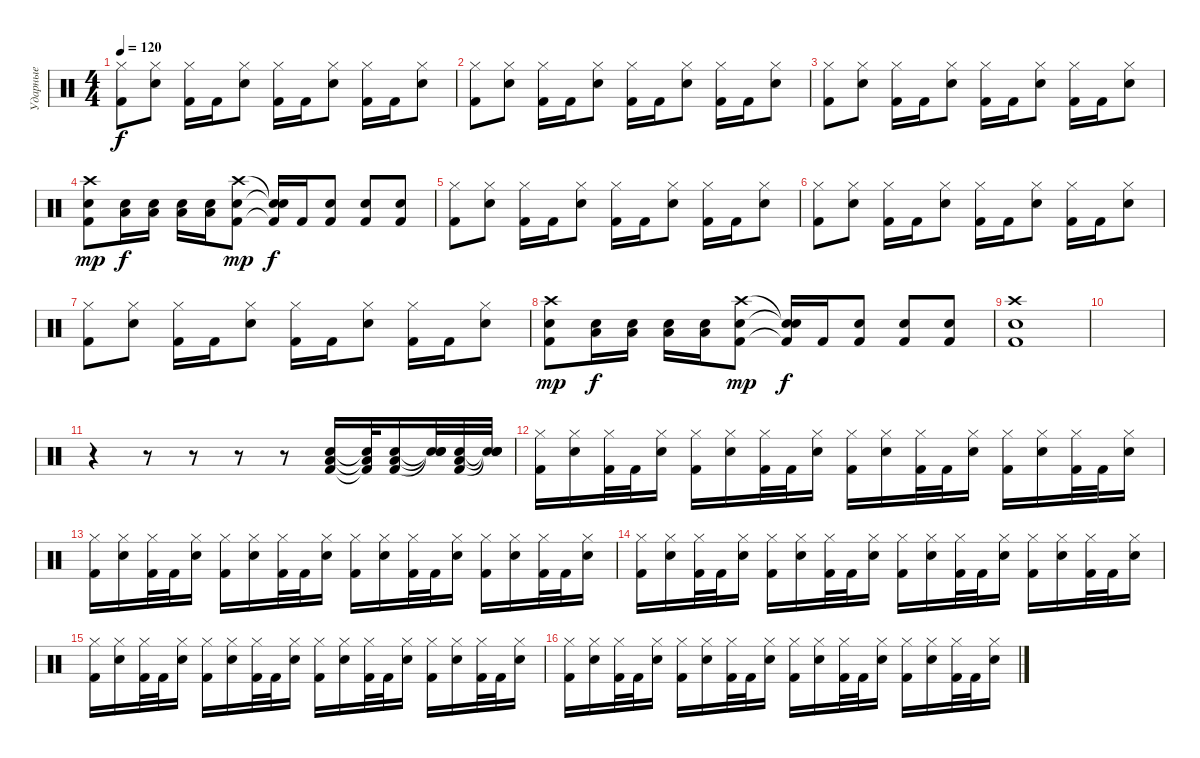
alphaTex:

\track ("Ударные" "Ударные") {instrument percussion}
\staff {score}
\articulation defaults
\ts (4 4)
\tempo 120
\clef neutral
\ks c
("Hi-Hat (closed)" "Kick (hit) 2").8{dy f} ("Hi-Hat (closed)" "Electric Snare (hit)").8 ("Hi-Hat (closed)" "Kick (hit) 2").16 "Kick (hit) 2".16 ("Hi-Hat (closed)" "Electric Snare (hit)").8 ("Hi-Hat (closed)" "Kick (hit) 2").16 "Kick (hit) 2".16 ("Hi-Hat (closed)" "Electric Snare (hit)").8 ("Hi-Hat (closed)" "Kick (hit) 2").16 "Kick (hit) 2".16 ("Hi-Hat (closed)" "Electric Snare (hit)").8 |
("Hi-Hat (closed)" "Kick (hit) 2").8 ("Hi-Hat (closed)" "Electric Snare (hit)").8 ("Hi-Hat (closed)" "Kick (hit) 2").16 "Kick (hit) 2".16 ("Hi-Hat (closed)" "Electric Snare (hit)").8 ("Hi-Hat (closed)" "Kick (hit) 2").16 "Kick (hit) 2".16 ("Hi-Hat (closed)" "Electric Snare (hit)").8 ("Hi-Hat (closed)" "Kick (hit) 2").16 "Kick (hit) 2".16 ("Hi-Hat (closed)" "Electric Snare (hit)").8 |
("Hi-Hat (closed)" "Kick (hit) 2").8 ("Hi-Hat (closed)" "Electric Snare (hit)").8 ("Hi-Hat (closed)" "Kick (hit) 2").16 "Kick (hit) 2".16 ("Hi-Hat (closed)" "Electric Snare (hit)").8 ("Hi-Hat (closed)" "Kick (hit) 2").16 "Kick (hit) 2".16 ("Hi-Hat (closed)" "Electric Snare (hit)").8 ("Hi-Hat (closed)" "Kick (hit) 2").16 "Kick (hit) 2".16 ("Hi-Hat (closed)" "Electric Snare (hit)").8 |
("Crash high (hit)" "Electric Snare (hit)" "Kick (hit) 2").8{dy mp} ("Low Floor Tom (hit)" "Electric Snare (hit)").16{dy f} ("Low Floor Tom (hit)" "Electric Snare (hit)").16 ("Low Floor Tom (hit)" "Electric Snare (hit)").16 ("Low Floor Tom (hit)" "Electric Snare (hit)").16 ("Crash high (hit)" "Electric Snare (hit)" "Kick (hit) 2").8{dy mp} ("Snare (hit)"{t} "Snare (hit)"{t} "Kick (hit) 2"{t}).16{dy f} "Kick (hit) 2".16 ("Electric Snare (hit)" "Kick (hit) 2").8 ("Electric Snare (hit)" "Kick (hit) 2").8 ("Electric Snare (hit)" "Kick (hit) 2").8 |
("Hi-Hat (closed)" "Kick (hit) 2").8 ("Hi-Hat (closed)" "Electric Snare (hit)").8 ("Hi-Hat (closed)" "Kick (hit) 2").16 "Kick (hit) 2".16 ("Hi-Hat (closed)" "Electric Snare (hit)").8 ("Hi-Hat (closed)" "Kick (hit) 2").16 "Kick (hit) 2".16 ("Hi-Hat (closed)" "Electric Snare (hit)").8 ("Hi-Hat (closed)" "Kick (hit) 2").16 "Kick (hit) 2".16 ("Hi-Hat (closed)" "Electric Snare (hit)").8 |
("Hi-Hat (closed)" "Kick (hit) 2").8 ("Hi-Hat (closed)" "Electric Snare (hit)").8 ("Hi-Hat (closed)" "Kick (hit) 2").16 "Kick (hit) 2".16 ("Hi-Hat (closed)" "Electric Snare (hit)").8 ("Hi-Hat (closed)" "Kick (hit) 2").16 "Kick (hit) 2".16 ("Hi-Hat (closed)" "Electric Snare (hit)").8 ("Hi-Hat (closed)" "Kick (hit) 2").16 "Kick (hit) 2".16 ("Hi-Hat (closed)" "Electric Snare (hit)").8 |
("Hi-Hat (closed)" "Kick (hit) 2").8 ("Hi-Hat (closed)" "Electric Snare (hit)").8 ("Hi-Hat (closed)" "Kick (hit) 2").16 "Kick (hit) 2".16 ("Hi-Hat (closed)" "Electric Snare (hit)").8 ("Hi-Hat (closed)" "Kick (hit) 2").16 "Kick (hit) 2".16 ("Hi-Hat (closed)" "Electric Snare (hit)").8 ("Hi-Hat (closed)" "Kick (hit) 2").16 "Kick (hit) 2".16 ("Hi-Hat (closed)" "Electric Snare (hit)").8 |
("Crash high (hit)" "Electric Snare (hit)" "Kick (hit) 2").8{dy mp} ("Low Floor Tom (hit)" "Electric Snare (hit)").16{dy f} ("Low Floor Tom (hit)" "Electric Snare (hit)").16 ("Low Floor Tom (hit)" "Electric Snare (hit)").16 ("Low Floor Tom (hit)" "Electric Snare (hit)").16 ("Crash high (hit)" "Electric Snare (hit)" "Kick (hit) 2").8{dy mp} ("Snare (hit)"{t} "Snare (hit)"{t} "Kick (hit) 2"{t}).16{dy f} "Kick (hit) 2".16 ("Electric Snare (hit)" "Kick (hit) 2").8 ("Electric Snare (hit)" "Kick (hit) 2").8 ("Electric Snare (hit)" "Kick (hit) 2").8 |
("Crash high (hit)" "Electric Snare (hit)" "Kick (hit) 2").1 |
|
r.4 r.8 r.8 r.8 r.8 ("Low Floor Tom (hit)" "Electric Snare (hit)" "Kick (hit) 2").16 ("Low Floor Tom (hit)"{t} "Electric Snare (hit)"{t} "Kick (hit) 2"{t}).32 ("Low Floor Tom (hit)" "Electric Snare (hit)" "Kick (hit) 2").16 ("Snare (hit)"{t} "Snare (hit)"{t} "Snare (hit)"{t}).32 ("Low Floor Tom (hit)" "Electric Snare (hit)" "Kick (hit) 2").32 ("Snare (hit)"{t} "Snare (hit)"{t} "Snare (hit)"{t} "Snare (hit)").32 |
("Hi-Hat (closed)" "Kick (hit) 2").16 ("Hi-Hat (closed)" "Electric Snare (hit)").16 ("Hi-Hat (closed)" "Kick (hit) 2").32 "Kick (hit) 2".32 ("Hi-Hat (closed)" "Electric Snare (hit)").16 ("Hi-Hat (closed)" "Kick (hit) 2").16 ("Hi-Hat (closed)" "Electric Snare (hit)").16 ("Hi-Hat (closed)" "Kick (hit) 2").32 "Kick (hit) 2".32 ("Hi-Hat (closed)" "Electric Snare (hit)").16 ("Hi-Hat (closed)" "Kick (hit) 2").16 ("Hi-Hat (closed)" "Electric Snare (hit)").16 ("Hi-Hat (closed)" "Kick (hit) 2").32 "Kick (hit) 2".32 ("Hi-Hat (closed)" "Electric Snare (hit)").16 ("Hi-Hat (closed)" "Kick (hit) 2").16 ("Hi-Hat (closed)" "Electric Snare (hit)").16 ("Hi-Hat (closed)" "Kick (hit) 2").32 "Kick (hit) 2".32 ("Hi-Hat (closed)" "Electric Snare (hit)").16 |
("Hi-Hat (closed)" "Kick (hit) 2").16 ("Hi-Hat (closed)" "Electric Snare (hit)").16 ("Hi-Hat (closed)" "Kick (hit) 2").32 "Kick (hit) 2".32 ("Hi-Hat (closed)" "Electric Snare (hit)").16 ("Hi-Hat (closed)" "Kick (hit) 2").16 ("Hi-Hat (closed)" "Electric Snare (hit)").16 ("Hi-Hat (closed)" "Kick (hit) 2").32 "Kick (hit) 2".32 ("Hi-Hat (closed)" "Electric Snare (hit)").16 ("Hi-Hat (closed)" "Kick (hit) 2").16 ("Hi-Hat (closed)" "Electric Snare (hit)").16 ("Hi-Hat (closed)" "Kick (hit) 2").32 "Kick (hit) 2".32 ("Hi-Hat (closed)" "Electric Snare (hit)").16 ("Hi-Hat (closed)" "Kick (hit) 2").16 ("Hi-Hat (closed)" "Electric Snare (hit)").16 ("Hi-Hat (closed)" "Kick (hit) 2").32 "Kick (hit) 2".32 ("Hi-Hat (closed)" "Electric Snare (hit)").16 |
("Hi-Hat (closed)" "Kick (hit) 2").16 ("Hi-Hat (closed)" "Electric Snare (hit)").16 ("Hi-Hat (closed)" "Kick (hit) 2").32 "Kick (hit) 2".32 ("Hi-Hat (closed)" "Electric Snare (hit)").16 ("Hi-Hat (closed)" "Kick (hit) 2").16 ("Hi-Hat (closed)" "Electric Snare (hit)").16 ("Hi-Hat (closed)" "Kick (hit) 2").32 "Kick (hit) 2".32 ("Hi-Hat (closed)" "Electric Snare (hit)").16 ("Hi-Hat (closed)" "Kick (hit) 2").16 ("Hi-Hat (closed)" "Electric Snare (hit)").16 ("Hi-Hat (closed)" "Kick (hit) 2").32 "Kick (hit) 2".32 ("Hi-Hat (closed)" "Electric Snare (hit)").16 ("Hi-Hat (closed)" "Kick (hit) 2").16 ("Hi-Hat (closed)" "Electric Snare (hit)").16 ("Hi-Hat (closed)" "Kick (hit) 2").32 "Kick (hit) 2".32 ("Hi-Hat (closed)" "Electric Snare (hit)").16 |
("Hi-Hat (closed)" "Kick (hit) 2").16 ("Hi-Hat (closed)" "Electric Snare (hit)").16 ("Hi-Hat (closed)" "Kick (hit) 2").32 "Kick (hit) 2".32 ("Hi-Hat (closed)" "Electric Snare (hit)").16 ("Hi-Hat (closed)" "Kick (hit) 2").16 ("Hi-Hat (closed)" "Electric Snare (hit)").16 ("Hi-Hat (closed)" "Kick (hit) 2").32 "Kick (hit) 2".32 ("Hi-Hat (closed)" "Electric Snare (hit)").16 ("Hi-Hat (closed)" "Kick (hit) 2").16 ("Hi-Hat (closed)" "Electric Snare (hit)").16 ("Hi-Hat (closed)" "Kick (hit) 2").32 "Kick (hit) 2".32 ("Hi-Hat (closed)" "Electric Snare (hit)").16 ("Hi-Hat (closed)" "Kick (hit) 2").16 ("Hi-Hat (closed)" "Electric Snare (hit)").16 ("Hi-Hat (closed)" "Kick (hit) 2").32 "Kick (hit) 2".32 ("Hi-Hat (closed)" "Electric Snare (hit)").16 |
("Hi-Hat (closed)" "Kick (hit) 2").16 ("Hi-Hat (closed)" "Electric Snare (hit)").16 ("Hi-Hat (closed)" "Kick (hit) 2").32 "Kick (hit) 2".32 ("Hi-Hat (closed)" "Electric Snare (hit)").16 ("Hi-Hat (closed)" "Kick (hit) 2").16 ("Hi-Hat (closed)" "Electric Snare (hit)").16 ("Hi-Hat (closed)" "Kick (hit) 2").32 "Kick (hit) 2".32 ("Hi-Hat (closed)" "Electric Snare (hit)").16 ("Hi-Hat (closed)" "Kick (hit) 2").16 ("Hi-Hat (closed)" "Electric Snare (hit)").16 ("Hi-Hat (closed)" "Kick (hit) 2").32 "Kick (hit) 2".32 ("Hi-Hat (closed)" "Electric Snare (hit)").16 ("Hi-Hat (closed)" "Kick (hit) 2").16 ("Hi-Hat (closed)" "Electric Snare (hit)").16 ("Hi-Hat (closed)" "Kick (hit) 2").32 "Kick (hit) 2".32 ("Hi-Hat (closed)" "Electric Snare (hit)").16
